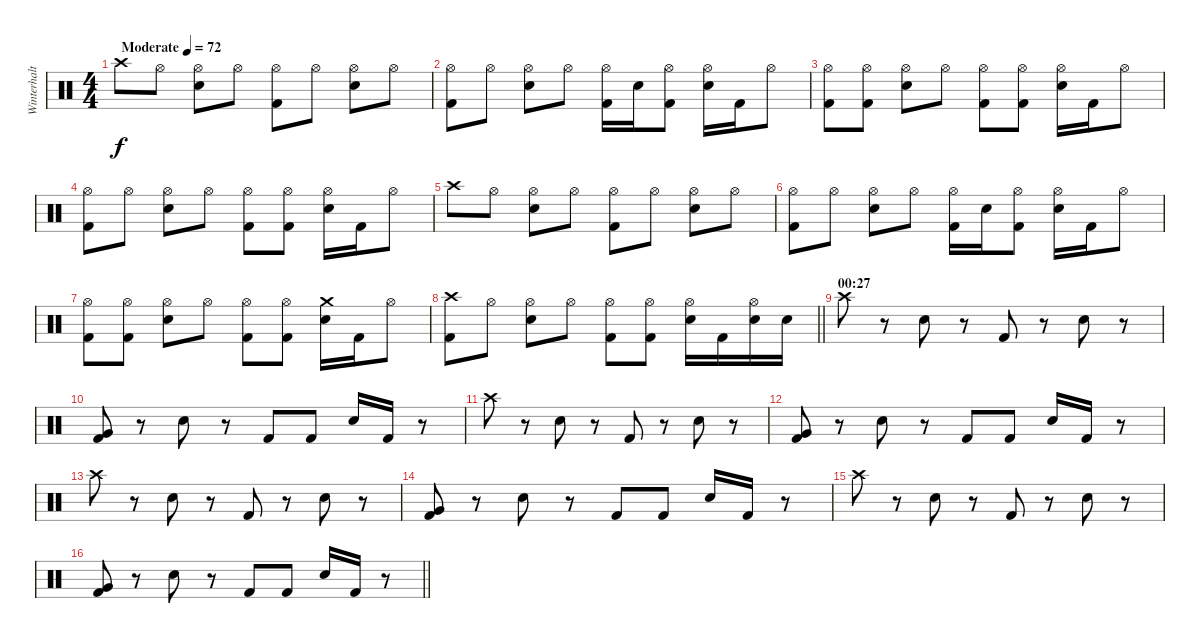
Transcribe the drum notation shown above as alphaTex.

\track ("Winterhalten" "Winterhalt") {instrument percussion}
\staff {score}
\articulation defaults
\ts (4 4)
\tempo (72 "Moderate")
\clef neutral
\ks c "Crash high (hit)".8{dy f} "Hi-Hat (open)".8
("Hi-Hat (open)" "Electric Snare (hit)").8 "Hi-Hat (open)".8 ("Hi-Hat (open)" "Kick (hit) 2").8 "Hi-Hat (open)".8 ("Hi-Hat (open)" "Electric Snare (hit)").8 "Hi-Hat (open)".8 |
("Hi-Hat (open)" "Kick (hit) 2").8 "Hi-Hat (open)".8 ("Hi-Hat (open)" "Electric Snare (hit)").8 "Hi-Hat (open)".8 ("Hi-Hat (open)" "Kick (hit) 2").16 "Electric Snare (hit)".16 ("Hi-Hat (open)" "Kick (hit) 2").8 ("Hi-Hat (open)" "Electric Snare (hit)").16 "Kick (hit) 2".16 "Hi-Hat (open)".8 |
("Hi-Hat (open)" "Kick (hit) 2").8 ("Hi-Hat (open)" "Kick (hit) 2").8 ("Hi-Hat (open)" "Electric Snare (hit)").8 "Hi-Hat (open)".8 ("Hi-Hat (open)" "Kick (hit) 2").8 ("Hi-Hat (open)" "Kick (hit) 2").8 ("Hi-Hat (open)" "Electric Snare (hit)").16 "Kick (hit) 2".16 "Hi-Hat (open)".8 |
("Hi-Hat (open)" "Kick (hit) 2").8 "Hi-Hat (open)".8 ("Hi-Hat (open)" "Electric Snare (hit)").8 "Hi-Hat (open)".8 ("Hi-Hat (open)" "Kick (hit) 2").8 ("Hi-Hat (open)" "Kick (hit) 2").8 ("Hi-Hat (open)" "Electric Snare (hit)").16 "Kick (hit) 2".16 "Hi-Hat (open)".8 |
"Crash high (hit)".8 "Hi-Hat (open)".8 ("Hi-Hat (open)" "Electric Snare (hit)").8 "Hi-Hat (open)".8 ("Hi-Hat (open)" "Kick (hit) 2").8 "Hi-Hat (open)".8 ("Hi-Hat (open)" "Electric Snare (hit)").8 "Hi-Hat (open)".8 |
("Hi-Hat (open)" "Kick (hit) 2").8 "Hi-Hat (open)".8 ("Hi-Hat (open)" "Electric Snare (hit)").8 "Hi-Hat (open)".8 ("Hi-Hat (open)" "Kick (hit) 2").16 "Electric Snare (hit)".16 ("Hi-Hat (open)" "Kick (hit) 2").8 ("Hi-Hat (open)" "Electric Snare (hit)").16 "Kick (hit) 2".16 "Hi-Hat (open)".8 |
("Hi-Hat (open)" "Kick (hit) 2").8 ("Hi-Hat (open)" "Kick (hit) 2").8 ("Hi-Hat (open)" "Electric Snare (hit)").8 "Hi-Hat (open)".8 ("Hi-Hat (open)" "Kick (hit) 2").8 ("Hi-Hat (open)" "Kick (hit) 2").8 ("Crash medium (hit)" "Electric Snare (hit)").16 "Kick (hit) 2".16 "Hi-Hat (open)".8 |
\barLineRight lightlight
("Crash high (hit)" "Kick (hit) 2").8 "Hi-Hat (open)".8 ("Hi-Hat (open)" "Electric Snare (hit)").8 "Hi-Hat (open)".8 ("Hi-Hat (open)" "Kick (hit) 2").8 ("Hi-Hat (open)" "Kick (hit) 2").8 ("Hi-Hat (open)" "Electric Snare (hit)").16 "Kick (hit) 2".16 ("Hi-Hat (open)" "Electric Snare (hit)").16 "Electric Snare (hit)".16 |
\section ("" "00:27")
"Crash high (hit)".8 r.8 "Electric Snare (hit)".8 r.8 "Kick (hit) 2".8 r.8 "Electric Snare (hit)".8 r.8 |
("Very Low Tom (hit)" "Kick (hit) 2").8{bd 120} r.8 "Electric Snare (hit)".8 r.8 "Kick (hit) 2".8 "Kick (hit) 2".8 "Electric Snare (hit)".16 "Kick (hit) 2".16 r.8 |
"Crash high (hit)".8 r.8 "Electric Snare (hit)".8 r.8 "Kick (hit) 2".8 r.8 "Electric Snare (hit)".8 r.8 |
("Very Low Tom (hit)" "Kick (hit) 2").8{bd 120} r.8 "Electric Snare (hit)".8 r.8 "Kick (hit) 2".8 "Kick (hit) 2".8 "Electric Snare (hit)".16 "Kick (hit) 2".16 r.8 |
"Crash high (hit)".8 r.8 "Electric Snare (hit)".8 r.8 "Kick (hit) 2".8 r.8 "Electric Snare (hit)".8 r.8 |
("Very Low Tom (hit)" "Kick (hit) 2").8{bd 120} r.8 "Electric Snare (hit)".8 r.8 "Kick (hit) 2".8 "Kick (hit) 2".8 "Electric Snare (hit)".16 "Kick (hit) 2".16 r.8 |
"Crash high (hit)".8 r.8 "Electric Snare (hit)".8 r.8 "Kick (hit) 2".8 r.8 "Electric Snare (hit)".8 r.8 |
\barLineRight lightlight
("Very Low Tom (hit)" "Kick (hit) 2").8{bd 120} r.8 "Electric Snare (hit)".8 r.8 "Kick (hit) 2".8 "Kick (hit) 2".8 "Electric Snare (hit)".16 "Kick (hit) 2".16 r.8
